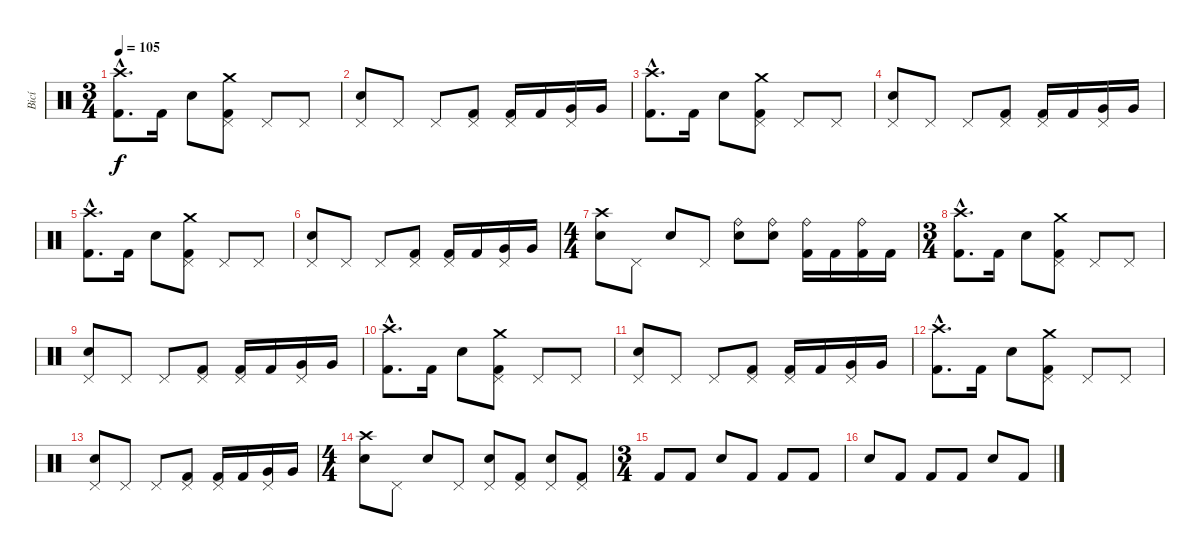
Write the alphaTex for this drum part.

\track ("Bicí" "Bicí") {instrument percussion}
\staff {score}
\articulation defaults
\ts (3 4)
\tempo 105
\clef neutral
\ks c
("Kick (hit) 2"{hac} "Crash high (hit)"{hac}).8{d dy f} "Kick (hit) 2".16 "Snare (hit) 2".8 ("Pedal Hi-Hat (hit)" "Kick (hit) 2" "Crash medium (hit)").8 "Pedal Hi-Hat (hit)".8 "Pedal Hi-Hat (hit)".8 |
("Pedal Hi-Hat (hit)" "Snare (hit) 2").8 "Pedal Hi-Hat (hit)".8 "Pedal Hi-Hat (hit)".8 ("Pedal Hi-Hat (hit)" "Kick (hit) 2").8 ("Pedal Hi-Hat (hit)" "Kick (hit) 2").16 "Kick (hit) 2".16 ("Pedal Hi-Hat (hit)" "Very Low Tom (hit)").16 "Very Low Tom (hit)".16 |
("Kick (hit) 2"{hac} "Crash high (hit)"{hac}).8{d} "Kick (hit) 2".16 "Snare (hit) 2".8 ("Pedal Hi-Hat (hit)" "Kick (hit) 2" "Crash medium (hit)").8 "Pedal Hi-Hat (hit)".8 "Pedal Hi-Hat (hit)".8 |
("Pedal Hi-Hat (hit)" "Snare (hit) 2").8 "Pedal Hi-Hat (hit)".8 "Pedal Hi-Hat (hit)".8 ("Pedal Hi-Hat (hit)" "Kick (hit) 2").8 ("Pedal Hi-Hat (hit)" "Kick (hit) 2").16 "Kick (hit) 2".16 ("Pedal Hi-Hat (hit)" "Very Low Tom (hit)").16 "Very Low Tom (hit)".16 |
("Kick (hit) 2"{hac} "Crash high (hit)"{hac}).8{d} "Kick (hit) 2".16 "Snare (hit) 2".8 ("Pedal Hi-Hat (hit)" "Kick (hit) 2" "Crash medium (hit)").8 "Pedal Hi-Hat (hit)".8 "Pedal Hi-Hat (hit)".8 |
("Pedal Hi-Hat (hit)" "Snare (hit) 2").8 "Pedal Hi-Hat (hit)".8 "Pedal Hi-Hat (hit)".8 ("Pedal Hi-Hat (hit)" "Kick (hit) 2").8 ("Pedal Hi-Hat (hit)" "Kick (hit) 2").16 "Kick (hit) 2".16 ("Pedal Hi-Hat (hit)" "Very Low Tom (hit)").16 "Very Low Tom (hit)".16 |
\ts (4 4)
("Snare (hit) 2" "Crash high (hit)").8 "Pedal Hi-Hat (hit)".8 "Snare (hit) 2".8 "Pedal Hi-Hat (hit)".8 ("Ride (bell)" "Snare (hit) 2").8 ("Ride (bell)" "Snare (hit) 2").8 ("Ride (bell)" "Kick (hit) 2").16 "Kick (hit) 2".16 ("Ride (bell)" "Kick (hit) 2").16 "Kick (hit) 2".16 |
\ts (3 4)
("Kick (hit) 2"{hac} "Crash high (hit)"{hac}).8{d} "Kick (hit) 2".16 "Snare (hit) 2".8 ("Pedal Hi-Hat (hit)" "Kick (hit) 2" "Crash medium (hit)").8 "Pedal Hi-Hat (hit)".8 "Pedal Hi-Hat (hit)".8 |
("Pedal Hi-Hat (hit)" "Snare (hit) 2").8 "Pedal Hi-Hat (hit)".8 "Pedal Hi-Hat (hit)".8 ("Pedal Hi-Hat (hit)" "Kick (hit) 2").8 ("Pedal Hi-Hat (hit)" "Kick (hit) 2").16 "Kick (hit) 2".16 ("Pedal Hi-Hat (hit)" "Very Low Tom (hit)").16 "Very Low Tom (hit)".16 |
("Kick (hit) 2"{hac} "Crash high (hit)"{hac}).8{d} "Kick (hit) 2".16 "Snare (hit) 2".8 ("Pedal Hi-Hat (hit)" "Kick (hit) 2" "Crash medium (hit)").8 "Pedal Hi-Hat (hit)".8 "Pedal Hi-Hat (hit)".8 |
("Pedal Hi-Hat (hit)" "Snare (hit) 2").8 "Pedal Hi-Hat (hit)".8 "Pedal Hi-Hat (hit)".8 ("Pedal Hi-Hat (hit)" "Kick (hit) 2").8 ("Pedal Hi-Hat (hit)" "Kick (hit) 2").16 "Kick (hit) 2".16 ("Pedal Hi-Hat (hit)" "Very Low Tom (hit)").16 "Very Low Tom (hit)".16 |
("Kick (hit) 2"{hac} "Crash high (hit)"{hac}).8{d} "Kick (hit) 2".16 "Snare (hit) 2".8 ("Pedal Hi-Hat (hit)" "Kick (hit) 2" "Crash medium (hit)").8 "Pedal Hi-Hat (hit)".8 "Pedal Hi-Hat (hit)".8 |
("Pedal Hi-Hat (hit)" "Snare (hit) 2").8 "Pedal Hi-Hat (hit)".8 "Pedal Hi-Hat (hit)".8 ("Pedal Hi-Hat (hit)" "Kick (hit) 2").8 ("Pedal Hi-Hat (hit)" "Kick (hit) 2").16 "Kick (hit) 2".16 ("Pedal Hi-Hat (hit)" "Very Low Tom (hit)").16 "Very Low Tom (hit)".16 |
\ts (4 4)
("Snare (hit) 2" "Crash high (hit)").8 "Pedal Hi-Hat (hit)".8 "Snare (hit) 2".8 "Pedal Hi-Hat (hit)".8 ("Pedal Hi-Hat (hit)" "Snare (hit) 2").8 ("Pedal Hi-Hat (hit)" "Kick (hit) 2").8 ("Pedal Hi-Hat (hit)" "Snare (hit) 2").8 ("Pedal Hi-Hat (hit)" "Kick (hit) 2").8 |
\ts (3 4)
"Kick (hit) 2".8 "Kick (hit) 2".8 "Snare (hit) 2".8 "Kick (hit) 2".8 "Kick (hit) 2".8 "Kick (hit) 2".8 |
"Snare (hit) 2".8 "Kick (hit) 2".8 "Kick (hit) 2".8 "Kick (hit) 2".8 "Snare (hit) 2".8 "Kick (hit) 2".8
